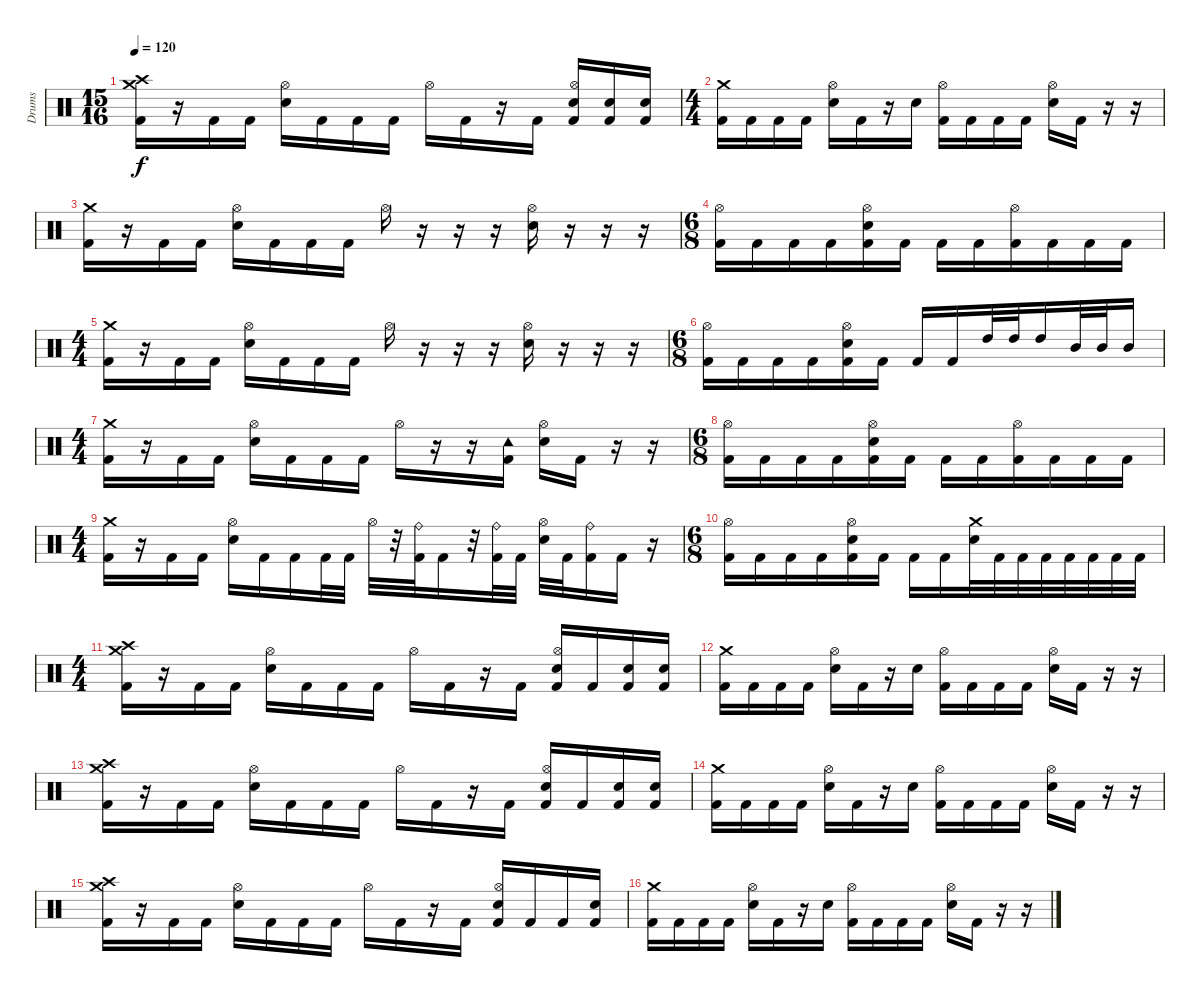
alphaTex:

\track ("Drums" "Drums") {instrument percussion}
\staff {score}
\articulation defaults
\ts (15 16)
\tempo 120
\clef neutral
\ks c
("Crash medium (hit)" "Crash high (hit)" "Kick (hit) 2").16{dy f} r.16 "Kick (hit) 2".16 "Kick (hit) 2".16 ("Hi-Hat (open)" "Electric Snare (hit)").16 "Kick (hit) 2".16 "Kick (hit) 2".16 "Kick (hit) 2".16 "Hi-Hat (open)".16 "Kick (hit) 2".16 r.16 "Kick (hit) 2".16 ("Hi-Hat (open)" "Electric Snare (hit)" "Kick (hit) 2").16 ("Electric Snare (hit)" "Kick (hit) 2").16 ("Electric Snare (hit)" "Kick (hit) 2").16 |
\ts (4 4)
("Crash medium (hit)" "Kick (hit) 2").16 "Kick (hit) 2".16 "Kick (hit) 2".16 "Kick (hit) 2".16 ("Hi-Hat (open)" "Electric Snare (hit)").16 "Kick (hit) 2".16 r.16 "Electric Snare (hit)".16 ("Hi-Hat (open)" "Kick (hit) 2").16 "Kick (hit) 2".16 "Kick (hit) 2".16 "Kick (hit) 2".16 ("Hi-Hat (open)" "Electric Snare (hit)").16 "Kick (hit) 2".16 r.16 r.16 |
("Crash medium (hit)" "Kick (hit) 2").16 r.16 "Kick (hit) 2".16 "Kick (hit) 2".16 ("Hi-Hat (open)" "Electric Snare (hit)").16 "Kick (hit) 2".16 "Kick (hit) 2".16 "Kick (hit) 2".16 "Hi-Hat (open)".16 r.16 r.16 r.16 ("Hi-Hat (open)" "Electric Snare (hit)").16 r.16 r.16 r.16 |
\ts (6 8)
("Hi-Hat (open)" "Kick (hit) 2").16 "Kick (hit) 2".16 "Kick (hit) 2".16 "Kick (hit) 2".16 ("Hi-Hat (open)" "Electric Snare (hit)" "Kick (hit) 2").16 "Kick (hit) 2".16 "Kick (hit) 2".16 "Kick (hit) 2".16 ("Hi-Hat (open)" "Kick (hit) 2").16 "Kick (hit) 2".16 "Kick (hit) 2".16 "Kick (hit) 2".16 |
\ts (4 4)
("Crash medium (hit)" "Kick (hit) 2").16 r.16 "Kick (hit) 2".16 "Kick (hit) 2".16 ("Hi-Hat (open)" "Electric Snare (hit)").16 "Kick (hit) 2".16 "Kick (hit) 2".16 "Kick (hit) 2".16 "Hi-Hat (open)".16 r.16 r.16 r.16 ("Hi-Hat (open)" "Electric Snare (hit)").16 r.16 r.16 r.16 |
\ts (6 8)
("Hi-Hat (open)" "Kick (hit) 2").16 "Kick (hit) 2".16 "Kick (hit) 2".16 "Kick (hit) 2".16 ("Hi-Hat (open)" "Electric Snare (hit)" "Kick (hit) 2").16 "Kick (hit) 2".16 "Kick (hit) 2".16 "Kick (hit) 2".16 "High Tom (hit)".32 "High Tom (hit)".32 "High Tom (hit)".16 "Mid Tom (hit)".32 "Mid Tom (hit)".32 "Mid Tom (hit)".16 |
\ts (4 4)
("Crash medium (hit)" "Kick (hit) 2").16 r.16 "Kick (hit) 2".16 "Kick (hit) 2".16 ("Hi-Hat (open)" "Electric Snare (hit)").16 "Kick (hit) 2".16 "Kick (hit) 2".16 "Kick (hit) 2".16 "Hi-Hat (open)".16 r.16 r.16 ("Tambourine (hit)" "Kick (hit) 2").16 ("Hi-Hat (open)" "Electric Snare (hit)").16 "Kick (hit) 2".16 r.16 r.16 |
\ts (6 8)
("Hi-Hat (open)" "Kick (hit) 2").16 "Kick (hit) 2".16 "Kick (hit) 2".16 "Kick (hit) 2".16 ("Hi-Hat (open)" "Electric Snare (hit)" "Kick (hit) 2").16 "Kick (hit) 2".16 "Kick (hit) 2".16 "Kick (hit) 2".16 ("Hi-Hat (open)" "Kick (hit) 2").16 "Kick (hit) 2".16 "Kick (hit) 2".16 "Kick (hit) 2".16 |
\ts (4 4)
("Crash medium (hit)" "Kick (hit) 2").16 r.16 "Kick (hit) 2".16 "Kick (hit) 2".16 ("Hi-Hat (open)" "Electric Snare (hit)").16 "Kick (hit) 2".16 "Kick (hit) 2".16 "Kick (hit) 2".32 "Kick (hit) 2".32 "Hi-Hat (open)".32 r.32 ("Ride (bell)" "Kick (hit) 2").32 "Kick (hit) 2".16 r.32 ("Ride (bell)" "Kick (hit) 2").32 "Kick (hit) 2".32 ("Hi-Hat (open)" "Electric Snare (hit)").32 "Kick (hit) 2".32 ("Ride (bell)" "Kick (hit) 2").16 "Kick (hit) 2".16 r.16 |
\ts (6 8)
("Hi-Hat (open)" "Kick (hit) 2").16 "Kick (hit) 2".16 "Kick (hit) 2".16 "Kick (hit) 2".16 ("Hi-Hat (open)" "Electric Snare (hit)" "Kick (hit) 2").16 "Kick (hit) 2".16 "Kick (hit) 2".16 "Kick (hit) 2".16 ("Crash medium (hit)" "Electric Snare (hit)").32 "Kick (hit) 2".32 "Kick (hit) 2".32 "Kick (hit) 2".32 "Kick (hit) 2".32 "Kick (hit) 2".32 "Kick (hit) 2".32 "Kick (hit) 2".32 |
\ts (4 4)
("Crash medium (hit)" "Crash high (hit)" "Kick (hit) 2").16 r.16 "Kick (hit) 2".16 "Kick (hit) 2".16 ("Hi-Hat (open)" "Electric Snare (hit)").16 "Kick (hit) 2".16 "Kick (hit) 2".16 "Kick (hit) 2".16 "Hi-Hat (open)".16 "Kick (hit) 2".16 r.16 "Kick (hit) 2".16 ("Hi-Hat (open)" "Electric Snare (hit)" "Kick (hit) 2").16 "Kick (hit) 2".16 ("Electric Snare (hit)" "Kick (hit) 2").16 ("Electric Snare (hit)" "Kick (hit) 2").16 |
("Crash medium (hit)" "Kick (hit) 2").16 "Kick (hit) 2".16 "Kick (hit) 2".16 "Kick (hit) 2".16 ("Hi-Hat (open)" "Electric Snare (hit)").16 "Kick (hit) 2".16 r.16 "Electric Snare (hit)".16 ("Hi-Hat (open)" "Kick (hit) 2").16 "Kick (hit) 2".16 "Kick (hit) 2".16 "Kick (hit) 2".16 ("Hi-Hat (open)" "Electric Snare (hit)").16 "Kick (hit) 2".16 r.16 r.16 |
("Crash medium (hit)" "Crash high (hit)" "Kick (hit) 2").16 r.16 "Kick (hit) 2".16 "Kick (hit) 2".16 ("Hi-Hat (open)" "Electric Snare (hit)").16 "Kick (hit) 2".16 "Kick (hit) 2".16 "Kick (hit) 2".16 "Hi-Hat (open)".16 "Kick (hit) 2".16 r.16 "Kick (hit) 2".16 ("Hi-Hat (open)" "Electric Snare (hit)" "Kick (hit) 2").16 "Kick (hit) 2".16 ("Electric Snare (hit)" "Kick (hit) 2").16 ("Electric Snare (hit)" "Kick (hit) 2").16 |
("Crash medium (hit)" "Kick (hit) 2").16 "Kick (hit) 2".16 "Kick (hit) 2".16 "Kick (hit) 2".16 ("Hi-Hat (open)" "Electric Snare (hit)").16 "Kick (hit) 2".16 r.16 "Electric Snare (hit)".16 ("Hi-Hat (open)" "Kick (hit) 2").16 "Kick (hit) 2".16 "Kick (hit) 2".16 "Kick (hit) 2".16 ("Hi-Hat (open)" "Electric Snare (hit)").16 "Kick (hit) 2".16 r.16 r.16 |
("Crash medium (hit)" "Crash high (hit)" "Kick (hit) 2").16 r.16 "Kick (hit) 2".16 "Kick (hit) 2".16 ("Hi-Hat (open)" "Electric Snare (hit)").16 "Kick (hit) 2".16 "Kick (hit) 2".16 "Kick (hit) 2".16 "Hi-Hat (open)".16 "Kick (hit) 2".16 r.16 "Kick (hit) 2".16 ("Hi-Hat (open)" "Electric Snare (hit)" "Kick (hit) 2").16 "Kick (hit) 2".16 "Kick (hit) 2".16 ("Electric Snare (hit)" "Kick (hit) 2").16 |
("Crash medium (hit)" "Kick (hit) 2").16 "Kick (hit) 2".16 "Kick (hit) 2".16 "Kick (hit) 2".16 ("Hi-Hat (open)" "Electric Snare (hit)").16 "Kick (hit) 2".16 r.16 "Electric Snare (hit)".16 ("Hi-Hat (open)" "Kick (hit) 2").16 "Kick (hit) 2".16 "Kick (hit) 2".16 "Kick (hit) 2".16 ("Hi-Hat (open)" "Electric Snare (hit)").16 "Kick (hit) 2".16 r.16 r.16
